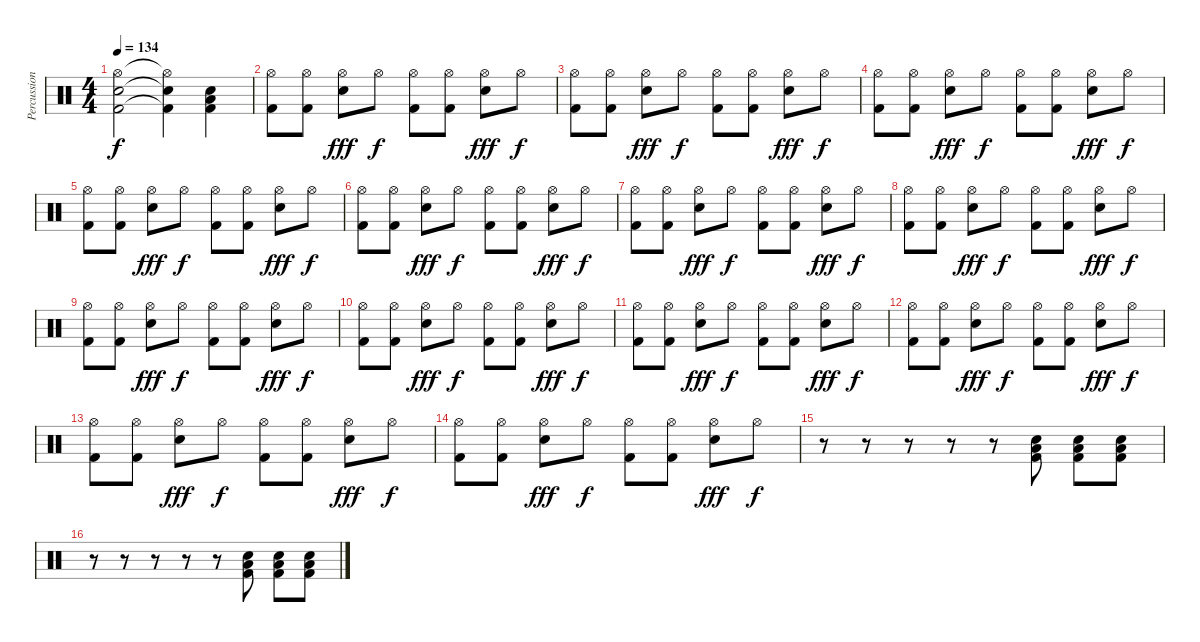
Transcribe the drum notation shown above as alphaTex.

\track ("Percussion" "Percussion") {instrument percussion}
\staff {score}
\articulation defaults
\ts (4 4)
\tempo 134
\clef neutral
\ks c
("Hi-Hat (open)" "Snare (hit) 2" "Kick (hit) 2").2{dy f} ("Hi-Hat (open)"{t} "Snare (hit) 2"{t} "Kick (hit) 2"{t}).4 ("Low Tom (hit)" "Snare (hit) 2" "Kick (hit) 2").4 |
("Hi-Hat (open)" "Kick (hit) 2").8 ("Hi-Hat (open)" "Kick (hit) 2").8 ("Hi-Hat (open)" "Snare (hit) 2").8{dy fff} "Hi-Hat (open)".8{dy f} ("Hi-Hat (open)" "Kick (hit) 2").8 ("Hi-Hat (open)" "Kick (hit) 2").8 ("Hi-Hat (open)" "Snare (hit) 2").8{dy fff} "Hi-Hat (open)".8{dy f} |
("Hi-Hat (open)" "Kick (hit) 2").8 ("Hi-Hat (open)" "Kick (hit) 2").8 ("Hi-Hat (open)" "Snare (hit) 2").8{dy fff} "Hi-Hat (open)".8{dy f} ("Hi-Hat (open)" "Kick (hit) 2").8 ("Hi-Hat (open)" "Kick (hit) 2").8 ("Hi-Hat (open)" "Snare (hit) 2").8{dy fff} "Hi-Hat (open)".8{dy f} |
("Hi-Hat (open)" "Kick (hit) 2").8 ("Hi-Hat (open)" "Kick (hit) 2").8 ("Hi-Hat (open)" "Snare (hit) 2").8{dy fff} "Hi-Hat (open)".8{dy f} ("Hi-Hat (open)" "Kick (hit) 2").8 ("Hi-Hat (open)" "Kick (hit) 2").8 ("Hi-Hat (open)" "Snare (hit) 2").8{dy fff} "Hi-Hat (open)".8{dy f} |
("Hi-Hat (open)" "Kick (hit) 2").8 ("Hi-Hat (open)" "Kick (hit) 2").8 ("Hi-Hat (open)" "Snare (hit) 2").8{dy fff} "Hi-Hat (open)".8{dy f} ("Hi-Hat (open)" "Kick (hit) 2").8 ("Hi-Hat (open)" "Kick (hit) 2").8 ("Hi-Hat (open)" "Snare (hit) 2").8{dy fff} "Hi-Hat (open)".8{dy f} |
("Hi-Hat (open)" "Kick (hit) 2").8 ("Hi-Hat (open)" "Kick (hit) 2").8 ("Hi-Hat (open)" "Snare (hit) 2").8{dy fff} "Hi-Hat (open)".8{dy f} ("Hi-Hat (open)" "Kick (hit) 2").8 ("Hi-Hat (open)" "Kick (hit) 2").8 ("Hi-Hat (open)" "Snare (hit) 2").8{dy fff} "Hi-Hat (open)".8{dy f} |
("Hi-Hat (open)" "Kick (hit) 2").8 ("Hi-Hat (open)" "Kick (hit) 2").8 ("Hi-Hat (open)" "Snare (hit) 2").8{dy fff} "Hi-Hat (open)".8{dy f} ("Hi-Hat (open)" "Kick (hit) 2").8 ("Hi-Hat (open)" "Kick (hit) 2").8 ("Hi-Hat (open)" "Snare (hit) 2").8{dy fff} "Hi-Hat (open)".8{dy f} |
("Hi-Hat (open)" "Kick (hit) 2").8 ("Hi-Hat (open)" "Kick (hit) 2").8 ("Hi-Hat (open)" "Snare (hit) 2").8{dy fff} "Hi-Hat (open)".8{dy f} ("Hi-Hat (open)" "Kick (hit) 2").8 ("Hi-Hat (open)" "Kick (hit) 2").8 ("Hi-Hat (open)" "Snare (hit) 2").8{dy fff} "Hi-Hat (open)".8{dy f} |
("Hi-Hat (open)" "Kick (hit) 2").8 ("Hi-Hat (open)" "Kick (hit) 2").8 ("Hi-Hat (open)" "Snare (hit) 2").8{dy fff} "Hi-Hat (open)".8{dy f} ("Hi-Hat (open)" "Kick (hit) 2").8 ("Hi-Hat (open)" "Kick (hit) 2").8 ("Hi-Hat (open)" "Snare (hit) 2").8{dy fff} "Hi-Hat (open)".8{dy f} |
("Hi-Hat (open)" "Kick (hit) 2").8 ("Hi-Hat (open)" "Kick (hit) 2").8 ("Hi-Hat (open)" "Snare (hit) 2").8{dy fff} "Hi-Hat (open)".8{dy f} ("Hi-Hat (open)" "Kick (hit) 2").8 ("Hi-Hat (open)" "Kick (hit) 2").8 ("Hi-Hat (open)" "Snare (hit) 2").8{dy fff} "Hi-Hat (open)".8{dy f} |
("Hi-Hat (open)" "Kick (hit) 2").8 ("Hi-Hat (open)" "Kick (hit) 2").8 ("Hi-Hat (open)" "Snare (hit) 2").8{dy fff} "Hi-Hat (open)".8{dy f} ("Hi-Hat (open)" "Kick (hit) 2").8 ("Hi-Hat (open)" "Kick (hit) 2").8 ("Hi-Hat (open)" "Snare (hit) 2").8{dy fff} "Hi-Hat (open)".8{dy f} |
("Hi-Hat (open)" "Kick (hit) 2").8 ("Hi-Hat (open)" "Kick (hit) 2").8 ("Hi-Hat (open)" "Snare (hit) 2").8{dy fff} "Hi-Hat (open)".8{dy f} ("Hi-Hat (open)" "Kick (hit) 2").8 ("Hi-Hat (open)" "Kick (hit) 2").8 ("Hi-Hat (open)" "Snare (hit) 2").8{dy fff} "Hi-Hat (open)".8{dy f} |
("Hi-Hat (open)" "Kick (hit) 2").8 ("Hi-Hat (open)" "Kick (hit) 2").8 ("Hi-Hat (open)" "Snare (hit) 2").8{dy fff} "Hi-Hat (open)".8{dy f} ("Hi-Hat (open)" "Kick (hit) 2").8 ("Hi-Hat (open)" "Kick (hit) 2").8 ("Hi-Hat (open)" "Snare (hit) 2").8{dy fff} "Hi-Hat (open)".8{dy f} |
("Hi-Hat (open)" "Kick (hit) 2").8 ("Hi-Hat (open)" "Kick (hit) 2").8 ("Hi-Hat (open)" "Snare (hit) 2").8{dy fff} "Hi-Hat (open)".8{dy f} ("Hi-Hat (open)" "Kick (hit) 2").8 ("Hi-Hat (open)" "Kick (hit) 2").8 ("Hi-Hat (open)" "Snare (hit) 2").8{dy fff} "Hi-Hat (open)".8{dy f} |
r.8 r.8 r.8 r.8 r.8 ("Low Tom (hit)" "Snare (hit) 2" "Kick (hit) 2").8 ("Low Tom (hit)" "Snare (hit) 2" "Kick (hit) 2").8 ("Low Tom (hit)" "Snare (hit) 2" "Kick (hit) 2").8 |
r.8 r.8 r.8 r.8 r.8 ("Low Tom (hit)" "Snare (hit) 2" "Kick (hit) 2").8 ("Low Tom (hit)" "Snare (hit) 2" "Kick (hit) 2").8 ("Low Tom (hit)" "Snare (hit) 2" "Kick (hit) 2").8
